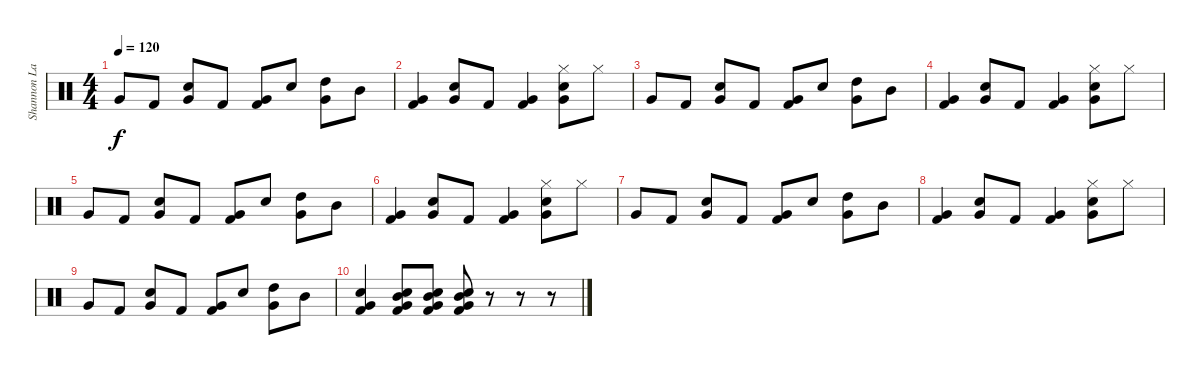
\track ("Shannon Larkin [Drums]" "Shannon La") {instrument percussion}
\staff {score}
\articulation defaults
\ts (4 4)
\tempo 120
\clef neutral
\ks c "Very Low Tom (hit)".8{dy f} "Kick (hit) 2".8
("Very Low Tom (hit)" "Electric Snare (hit)").8 "Kick (hit) 2".8 ("Very Low Tom (hit)" "Kick (hit) 2").8 "Electric Snare (hit)".8 ("Very Low Tom (hit)" "High Tom (hit)").8 "Mid Tom (hit)".8 |
("Very Low Tom (hit)" "Kick (hit) 2").4 ("Very Low Tom (hit)" "Electric Snare (hit)").8 "Kick (hit) 2".8 ("Very Low Tom (hit)" "Kick (hit) 2").4 ("Hi-Hat (closed)" "Very Low Tom (hit)" "Electric Snare (hit)").8 "Hi-Hat (closed)".8 |
"Very Low Tom (hit)".8 "Kick (hit) 2".8 ("Very Low Tom (hit)" "Electric Snare (hit)").8 "Kick (hit) 2".8 ("Very Low Tom (hit)" "Kick (hit) 2").8 "Electric Snare (hit)".8 ("Very Low Tom (hit)" "High Tom (hit)").8 "Mid Tom (hit)".8 |
("Very Low Tom (hit)" "Kick (hit) 2").4 ("Very Low Tom (hit)" "Electric Snare (hit)").8 "Kick (hit) 2".8 ("Very Low Tom (hit)" "Kick (hit) 2").4 ("Hi-Hat (closed)" "Very Low Tom (hit)" "Electric Snare (hit)").8 "Hi-Hat (closed)".8 |
"Very Low Tom (hit)".8 "Kick (hit) 2".8 ("Very Low Tom (hit)" "Electric Snare (hit)").8 "Kick (hit) 2".8 ("Very Low Tom (hit)" "Kick (hit) 2").8 "Electric Snare (hit)".8 ("Very Low Tom (hit)" "High Tom (hit)").8 "Mid Tom (hit)".8 |
("Very Low Tom (hit)" "Kick (hit) 2").4 ("Very Low Tom (hit)" "Electric Snare (hit)").8 "Kick (hit) 2".8 ("Very Low Tom (hit)" "Kick (hit) 2").4 ("Hi-Hat (closed)" "Very Low Tom (hit)" "Electric Snare (hit)").8 "Hi-Hat (closed)".8 |
"Very Low Tom (hit)".8 "Kick (hit) 2".8 ("Very Low Tom (hit)" "Electric Snare (hit)").8 "Kick (hit) 2".8 ("Very Low Tom (hit)" "Kick (hit) 2").8 "Electric Snare (hit)".8 ("Very Low Tom (hit)" "High Tom (hit)").8 "Mid Tom (hit)".8 |
("Very Low Tom (hit)" "Kick (hit) 2").4 ("Very Low Tom (hit)" "Electric Snare (hit)").8 "Kick (hit) 2".8 ("Very Low Tom (hit)" "Kick (hit) 2").4 ("Hi-Hat (closed)" "Very Low Tom (hit)" "Electric Snare (hit)").8 "Hi-Hat (closed)".8 |
"Very Low Tom (hit)".8 "Kick (hit) 2".8 ("Very Low Tom (hit)" "Electric Snare (hit)").8 "Kick (hit) 2".8 ("Very Low Tom (hit)" "Kick (hit) 2").8 "Electric Snare (hit)".8 ("Very Low Tom (hit)" "High Tom (hit)").8 "Mid Tom (hit)".8 |
("Very Low Tom (hit)" "Electric Snare (hit)" "Kick (hit) 2").4 ("Mid Tom (hit)" "Very Low Tom (hit)" "Electric Snare (hit)" "Kick (hit) 2").8 ("Mid Tom (hit)" "Very Low Tom (hit)" "Electric Snare (hit)" "Kick (hit) 2").8 ("Mid Tom (hit)" "Very Low Tom (hit)" "Electric Snare (hit)" "Kick (hit) 2").8 r.8 r.8 r.8
